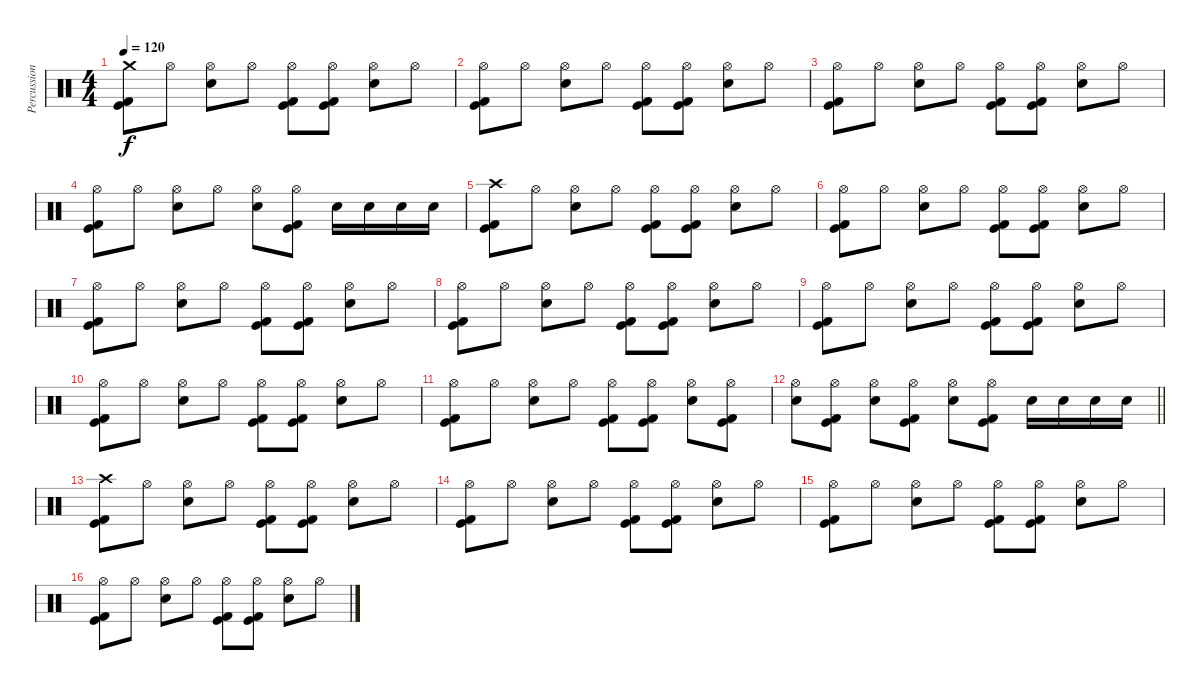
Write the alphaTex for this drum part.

\track ("Percussion" "Percussion") {instrument percussion}
\staff {score}
\articulation defaults
\ts (4 4)
\tempo 120
\clef neutral
\ks c
("Crash medium (hit)" "Kick (hit)" "Kick (hit) 2").8{dy f} "Hi-Hat (open)".8 ("Hi-Hat (open)" "Electric Snare (hit)").8 "Hi-Hat (open)".8 ("Hi-Hat (open)" "Kick (hit)" "Kick (hit) 2").8 ("Hi-Hat (open)" "Kick (hit)" "Kick (hit) 2").8 ("Hi-Hat (open)" "Electric Snare (hit)").8 "Hi-Hat (open)".8 |
("Hi-Hat (open)" "Kick (hit)" "Kick (hit) 2").8 "Hi-Hat (open)".8 ("Hi-Hat (open)" "Electric Snare (hit)").8 "Hi-Hat (open)".8 ("Hi-Hat (open)" "Kick (hit)" "Kick (hit) 2").8 ("Hi-Hat (open)" "Kick (hit)" "Kick (hit) 2").8 ("Hi-Hat (open)" "Electric Snare (hit)").8 "Hi-Hat (open)".8 |
("Hi-Hat (open)" "Kick (hit)" "Kick (hit) 2").8 "Hi-Hat (open)".8 ("Hi-Hat (open)" "Electric Snare (hit)").8 "Hi-Hat (open)".8 ("Hi-Hat (open)" "Kick (hit)" "Kick (hit) 2").8 ("Hi-Hat (open)" "Kick (hit)" "Kick (hit) 2").8 ("Hi-Hat (open)" "Electric Snare (hit)").8 "Hi-Hat (open)".8 |
("Hi-Hat (open)" "Kick (hit)" "Kick (hit) 2").8 "Hi-Hat (open)".8 ("Hi-Hat (open)" "Electric Snare (hit)").8 "Hi-Hat (open)".8 ("Hi-Hat (open)" "Electric Snare (hit)").8 ("Hi-Hat (open)" "Kick (hit)" "Kick (hit) 2").8 "Electric Snare (hit)".16 "Electric Snare (hit)".16 "Electric Snare (hit)".16 "Electric Snare (hit)".16 |
("Crash high (hit)" "Kick (hit)" "Kick (hit) 2").8 "Hi-Hat (open)".8 ("Hi-Hat (open)" "Electric Snare (hit)").8 "Hi-Hat (open)".8 ("Hi-Hat (open)" "Kick (hit)" "Kick (hit) 2").8 ("Hi-Hat (open)" "Kick (hit)" "Kick (hit) 2").8 ("Hi-Hat (open)" "Electric Snare (hit)").8 "Hi-Hat (open)".8 |
("Hi-Hat (open)" "Kick (hit)" "Kick (hit) 2").8 "Hi-Hat (open)".8 ("Hi-Hat (open)" "Electric Snare (hit)").8 "Hi-Hat (open)".8 ("Hi-Hat (open)" "Kick (hit)" "Kick (hit) 2").8 ("Hi-Hat (open)" "Kick (hit)" "Kick (hit) 2").8 ("Hi-Hat (open)" "Electric Snare (hit)").8 "Hi-Hat (open)".8 |
("Hi-Hat (open)" "Kick (hit)" "Kick (hit) 2").8 "Hi-Hat (open)".8 ("Hi-Hat (open)" "Electric Snare (hit)").8 "Hi-Hat (open)".8 ("Hi-Hat (open)" "Kick (hit)" "Kick (hit) 2").8 ("Hi-Hat (open)" "Kick (hit)" "Kick (hit) 2").8 ("Hi-Hat (open)" "Electric Snare (hit)").8 "Hi-Hat (open)".8 |
("Hi-Hat (open)" "Kick (hit)" "Kick (hit) 2").8 "Hi-Hat (open)".8 ("Hi-Hat (open)" "Electric Snare (hit)").8 "Hi-Hat (open)".8 ("Hi-Hat (open)" "Kick (hit)" "Kick (hit) 2").8 ("Hi-Hat (open)" "Kick (hit)" "Kick (hit) 2").8 ("Hi-Hat (open)" "Electric Snare (hit)").8 "Hi-Hat (open)".8 |
("Hi-Hat (open)" "Kick (hit)" "Kick (hit) 2").8 "Hi-Hat (open)".8 ("Hi-Hat (open)" "Electric Snare (hit)").8 "Hi-Hat (open)".8 ("Hi-Hat (open)" "Kick (hit)" "Kick (hit) 2").8 ("Hi-Hat (open)" "Kick (hit)" "Kick (hit) 2").8 ("Hi-Hat (open)" "Electric Snare (hit)").8 "Hi-Hat (open)".8 |
("Hi-Hat (open)" "Kick (hit)" "Kick (hit) 2").8 "Hi-Hat (open)".8 ("Hi-Hat (open)" "Electric Snare (hit)").8 "Hi-Hat (open)".8 ("Hi-Hat (open)" "Kick (hit)" "Kick (hit) 2").8 ("Hi-Hat (open)" "Kick (hit)" "Kick (hit) 2").8 ("Hi-Hat (open)" "Electric Snare (hit)").8 "Hi-Hat (open)".8 |
("Hi-Hat (open)" "Kick (hit)" "Kick (hit) 2").8 "Hi-Hat (open)".8 ("Hi-Hat (open)" "Electric Snare (hit)").8 "Hi-Hat (open)".8 ("Hi-Hat (open)" "Kick (hit)" "Kick (hit) 2").8 ("Hi-Hat (open)" "Kick (hit)" "Kick (hit) 2").8 ("Hi-Hat (open)" "Electric Snare (hit)").8 ("Hi-Hat (open)" "Kick (hit)" "Kick (hit) 2").8 |
\barLineRight lightlight
("Hi-Hat (open)" "Electric Snare (hit)").8 ("Hi-Hat (open)" "Kick (hit)" "Kick (hit) 2").8 ("Hi-Hat (open)" "Electric Snare (hit)").8 ("Hi-Hat (open)" "Kick (hit)" "Kick (hit) 2").8 ("Hi-Hat (open)" "Electric Snare (hit)").8 ("Hi-Hat (open)" "Kick (hit)" "Kick (hit) 2").8 "Electric Snare (hit)".16 "Electric Snare (hit)".16 "Electric Snare (hit)".16 "Electric Snare (hit)".16 |
\section ("" "")
("Crash high (hit)" "Kick (hit)" "Kick (hit) 2").8 "Hi-Hat (open)".8 ("Hi-Hat (open)" "Electric Snare (hit)").8 "Hi-Hat (open)".8 ("Hi-Hat (open)" "Kick (hit)" "Kick (hit) 2").8 ("Hi-Hat (open)" "Kick (hit)" "Kick (hit) 2").8 ("Hi-Hat (open)" "Electric Snare (hit)").8 "Hi-Hat (open)".8 |
("Hi-Hat (open)" "Kick (hit)" "Kick (hit) 2").8 "Hi-Hat (open)".8 ("Hi-Hat (open)" "Electric Snare (hit)").8 "Hi-Hat (open)".8 ("Hi-Hat (open)" "Kick (hit)" "Kick (hit) 2").8 ("Hi-Hat (open)" "Kick (hit)" "Kick (hit) 2").8 ("Hi-Hat (open)" "Electric Snare (hit)").8 "Hi-Hat (open)".8 |
("Hi-Hat (open)" "Kick (hit)" "Kick (hit) 2").8 "Hi-Hat (open)".8 ("Hi-Hat (open)" "Electric Snare (hit)").8 "Hi-Hat (open)".8 ("Hi-Hat (open)" "Kick (hit)" "Kick (hit) 2").8 ("Hi-Hat (open)" "Kick (hit)" "Kick (hit) 2").8 ("Hi-Hat (open)" "Electric Snare (hit)").8 "Hi-Hat (open)".8 |
("Hi-Hat (open)" "Kick (hit)" "Kick (hit) 2").8 "Hi-Hat (open)".8 ("Hi-Hat (open)" "Electric Snare (hit)").8 "Hi-Hat (open)".8 ("Hi-Hat (open)" "Kick (hit)" "Kick (hit) 2").8 ("Hi-Hat (open)" "Kick (hit)" "Kick (hit) 2").8 ("Hi-Hat (open)" "Electric Snare (hit)").8 "Hi-Hat (open)".8
